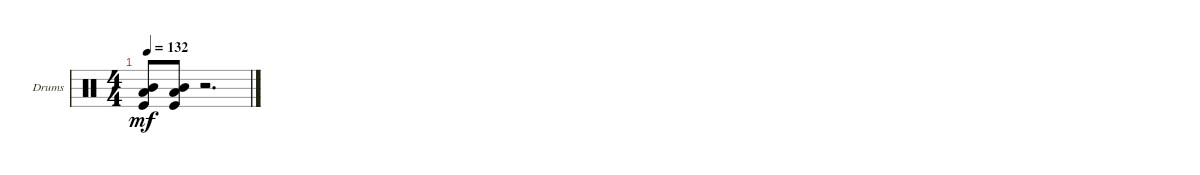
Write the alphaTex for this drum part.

\defaultSystemsLayout 4
\bracketExtendMode groupsimilarinstruments
\firstSystemTrackNameOrientation horizontal
\otherSystemsTrackNameOrientation horizontal
\track ("Drumkit" "Drums") {instrument percussion}
\staff {score}
\articulation defaults
\ts (4 4)
\tempo 132
\clef neutral
\scale
0.333333
\ks c
("Kick (hit)" "Mid Tom (hit)" "Low Tom (hit)").8{dy mf} ("Kick (hit)" "Mid Tom (hit)" "Low Tom (hit)").8 r.2{d} |
\scale
0.333333 |
\scale
0.333333 |
\scale
0.333333 |
\scale
0.333333 |
\scale
0.333333 |
\scale
0.333333 |
\scale
0.333333 |
\scale
0.333333 |
\scale
0.333333
